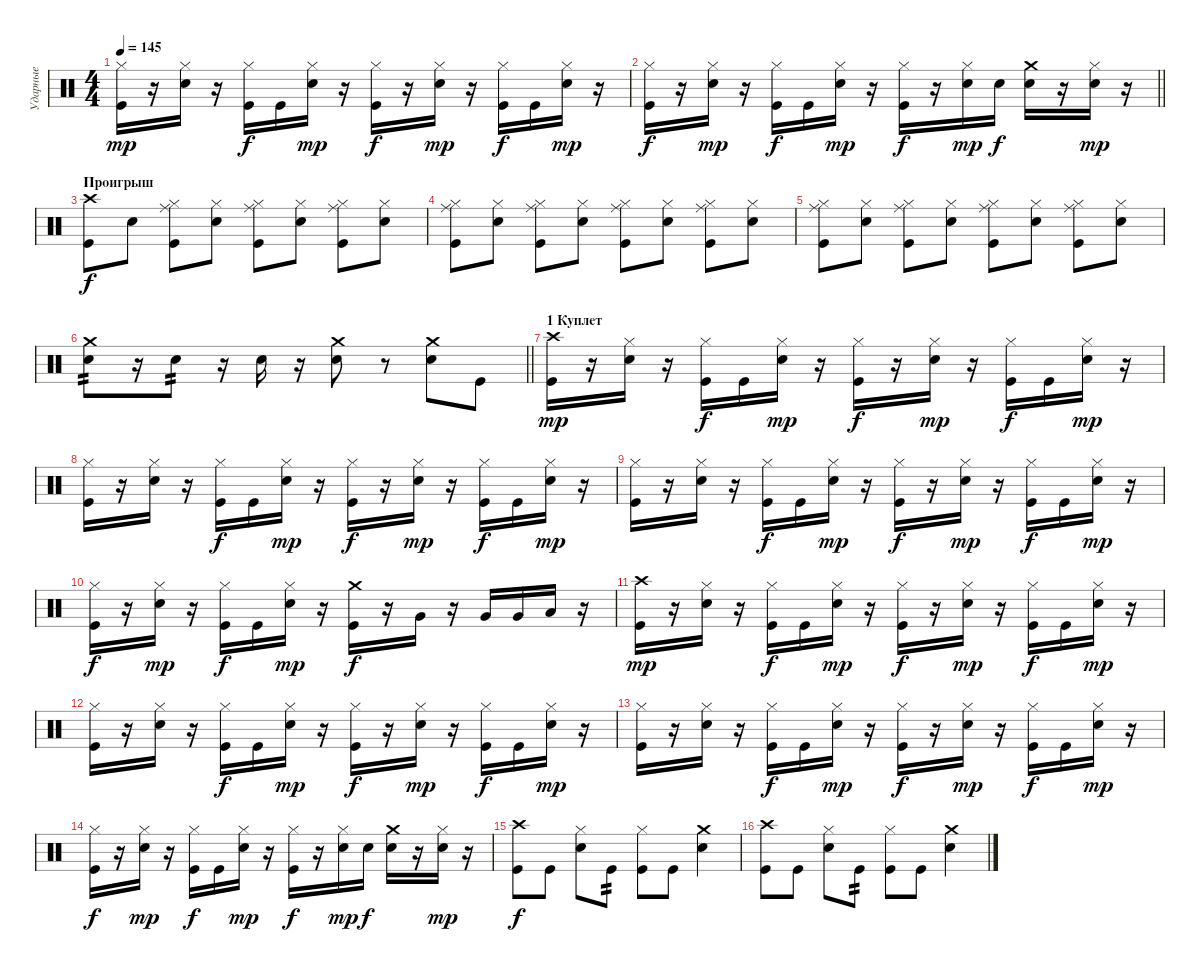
\track ("Ударные" "Ударные") {instrument percussion}
\staff {score}
\articulation defaults
\ts (4 4)
\tempo 145
\clef neutral
\ks c
("Hi-Hat (closed)" "Kick (hit)").16{dy mp} r.16 ("Hi-Hat (closed)" "Snare (hit) 2").16 r.16 ("Hi-Hat (closed)" "Kick (hit)").16{dy f} "Kick (hit)".16 ("Hi-Hat (closed)" "Snare (hit) 2").16{dy mp} r.16 ("Hi-Hat (closed)" "Kick (hit)").16{dy f} r.16 ("Hi-Hat (closed)" "Snare (hit) 2").16{dy mp} r.16 ("Hi-Hat (closed)" "Kick (hit)").16{dy f} "Kick (hit)".16 ("Hi-Hat (closed)" "Snare (hit) 2").16{dy mp} r.16 |
\barLineRight lightlight
("Hi-Hat (closed)" "Kick (hit)").16{dy f} r.16 ("Hi-Hat (closed)" "Snare (hit) 2").16{dy mp} r.16 ("Hi-Hat (closed)" "Kick (hit)").16{dy f} "Kick (hit)".16 ("Hi-Hat (closed)" "Snare (hit) 2").16{dy mp} r.16 ("Hi-Hat (closed)" "Kick (hit)").16{dy f} r.16 ("Hi-Hat (closed)" "Snare (hit) 2").16{dy mp} "Snare (hit) 2".16{dy f} ("Crash medium (hit)" "Snare (hit) 2").16 r.16 ("Hi-Hat (closed)" "Snare (hit) 2").16{dy mp} r.16 |
\section ("" "Проигрыш")
("Crash high (hit)" "Kick (hit)").8{dy f} "Snare (hit) 2".8 ("Hi-Hat (closed)" "Ride (middle)" "Kick (hit)").8 ("Hi-Hat (closed)" "Snare (hit) 2").8 ("Hi-Hat (closed)" "Ride (middle)" "Kick (hit)").8 ("Hi-Hat (closed)" "Snare (hit) 2").8 ("Hi-Hat (closed)" "Ride (middle)" "Kick (hit)").8 ("Hi-Hat (closed)" "Snare (hit) 2").8 |
("Hi-Hat (closed)" "Ride (middle)" "Kick (hit)").8 ("Hi-Hat (closed)" "Snare (hit) 2").8 ("Hi-Hat (closed)" "Ride (middle)" "Kick (hit)").8 ("Hi-Hat (closed)" "Snare (hit) 2").8 ("Hi-Hat (closed)" "Ride (middle)" "Kick (hit)").8 ("Hi-Hat (closed)" "Snare (hit) 2").8 ("Hi-Hat (closed)" "Ride (middle)" "Kick (hit)").8 ("Hi-Hat (closed)" "Snare (hit) 2").8 |
("Hi-Hat (closed)" "Ride (middle)" "Kick (hit)").8 ("Hi-Hat (closed)" "Snare (hit) 2").8 ("Hi-Hat (closed)" "Ride (middle)" "Kick (hit)").8 ("Hi-Hat (closed)" "Snare (hit) 2").8 ("Hi-Hat (closed)" "Ride (middle)" "Kick (hit)").8 ("Hi-Hat (closed)" "Snare (hit) 2").8 ("Hi-Hat (closed)" "Ride (middle)" "Kick (hit)").8 ("Hi-Hat (closed)" "Snare (hit) 2").8 |
\barLineRight lightlight
("Crash medium (hit)" "Snare (hit) 2").8{tp 2} r.16 "Snare (hit) 2".8{tp 2} r.16 "Snare (hit) 2".16 r.16 ("Crash medium (hit)" "Snare (hit) 2").8 r.8 ("Crash medium (hit)" "Snare (hit) 2").8 "Kick (hit)".8 |
\section ("" "1 Куплет")
("Crash high (hit)" "Kick (hit)").16{dy mp} r.16 ("Hi-Hat (closed)" "Snare (hit) 2").16 r.16 ("Hi-Hat (closed)" "Kick (hit)").16{dy f} "Kick (hit)".16 ("Hi-Hat (closed)" "Snare (hit) 2").16{dy mp} r.16 ("Hi-Hat (closed)" "Kick (hit)").16{dy f} r.16 ("Hi-Hat (closed)" "Snare (hit) 2").16{dy mp} r.16 ("Hi-Hat (closed)" "Kick (hit)").16{dy f} "Kick (hit)".16 ("Hi-Hat (closed)" "Snare (hit) 2").16{dy mp} r.16 |
("Hi-Hat (closed)" "Kick (hit)").16 r.16 ("Hi-Hat (closed)" "Snare (hit) 2").16 r.16 ("Hi-Hat (closed)" "Kick (hit)").16{dy f} "Kick (hit)".16 ("Hi-Hat (closed)" "Snare (hit) 2").16{dy mp} r.16 ("Hi-Hat (closed)" "Kick (hit)").16{dy f} r.16 ("Hi-Hat (closed)" "Snare (hit) 2").16{dy mp} r.16 ("Hi-Hat (closed)" "Kick (hit)").16{dy f} "Kick (hit)".16 ("Hi-Hat (closed)" "Snare (hit) 2").16{dy mp} r.16 |
("Hi-Hat (closed)" "Kick (hit)").16 r.16 ("Hi-Hat (closed)" "Snare (hit) 2").16 r.16 ("Hi-Hat (closed)" "Kick (hit)").16{dy f} "Kick (hit)".16 ("Hi-Hat (closed)" "Snare (hit) 2").16{dy mp} r.16 ("Hi-Hat (closed)" "Kick (hit)").16{dy f} r.16 ("Hi-Hat (closed)" "Snare (hit) 2").16{dy mp} r.16 ("Hi-Hat (closed)" "Kick (hit)").16{dy f} "Kick (hit)".16 ("Hi-Hat (closed)" "Snare (hit) 2").16{dy mp} r.16 |
("Hi-Hat (closed)" "Kick (hit)").16{dy f} r.16 ("Hi-Hat (closed)" "Snare (hit) 2").16{dy mp} r.16 ("Hi-Hat (closed)" "Kick (hit)").16{dy f} "Kick (hit)".16 ("Hi-Hat (closed)" "Snare (hit) 2").16{dy mp} r.16 ("Crash medium (hit)" "Kick (hit)").16{dy f} r.16 "Very Low Tom (hit)".16 r.16 "Very Low Tom (hit)".16 "Very Low Tom (hit)".16 "Low Floor Tom (hit)".16 r.16 |
("Crash high (hit)" "Kick (hit)").16{dy mp} r.16 ("Hi-Hat (closed)" "Snare (hit) 2").16 r.16 ("Hi-Hat (closed)" "Kick (hit)").16{dy f} "Kick (hit)".16 ("Hi-Hat (closed)" "Snare (hit) 2").16{dy mp} r.16 ("Hi-Hat (closed)" "Kick (hit)").16{dy f} r.16 ("Hi-Hat (closed)" "Snare (hit) 2").16{dy mp} r.16 ("Hi-Hat (closed)" "Kick (hit)").16{dy f} "Kick (hit)".16 ("Hi-Hat (closed)" "Snare (hit) 2").16{dy mp} r.16 |
("Hi-Hat (closed)" "Kick (hit)").16 r.16 ("Hi-Hat (closed)" "Snare (hit) 2").16 r.16 ("Hi-Hat (closed)" "Kick (hit)").16{dy f} "Kick (hit)".16 ("Hi-Hat (closed)" "Snare (hit) 2").16{dy mp} r.16 ("Hi-Hat (closed)" "Kick (hit)").16{dy f} r.16 ("Hi-Hat (closed)" "Snare (hit) 2").16{dy mp} r.16 ("Hi-Hat (closed)" "Kick (hit)").16{dy f} "Kick (hit)".16 ("Hi-Hat (closed)" "Snare (hit) 2").16{dy mp} r.16 |
("Hi-Hat (closed)" "Kick (hit)").16 r.16 ("Hi-Hat (closed)" "Snare (hit) 2").16 r.16 ("Hi-Hat (closed)" "Kick (hit)").16{dy f} "Kick (hit)".16 ("Hi-Hat (closed)" "Snare (hit) 2").16{dy mp} r.16 ("Hi-Hat (closed)" "Kick (hit)").16{dy f} r.16 ("Hi-Hat (closed)" "Snare (hit) 2").16{dy mp} r.16 ("Hi-Hat (closed)" "Kick (hit)").16{dy f} "Kick (hit)".16 ("Hi-Hat (closed)" "Snare (hit) 2").16{dy mp} r.16 |
("Hi-Hat (closed)" "Kick (hit)").16{dy f} r.16 ("Hi-Hat (closed)" "Snare (hit) 2").16{dy mp} r.16 ("Hi-Hat (closed)" "Kick (hit)").16{dy f} "Kick (hit)".16 ("Hi-Hat (closed)" "Snare (hit) 2").16{dy mp} r.16 ("Hi-Hat (closed)" "Kick (hit)").16{dy f} r.16 ("Hi-Hat (closed)" "Snare (hit) 2").16{dy mp} "Snare (hit) 2".16{dy f} ("Crash medium (hit)" "Snare (hit) 2").16 r.16 ("Hi-Hat (closed)" "Snare (hit) 2").16{dy mp} r.16 |
("Crash high (hit)" "Kick (hit)").8{dy f} "Kick (hit)".8 ("Hi-Hat (closed)" "Snare (hit) 2").8 "Kick (hit)".8{tp 2} ("Hi-Hat (closed)" "Kick (hit)").8 "Kick (hit)".8 ("Crash medium (hit)" "Snare (hit) 2").4 |
("Crash high (hit)" "Kick (hit)").8 "Kick (hit)".8 ("Hi-Hat (closed)" "Snare (hit) 2").8 "Kick (hit)".8{tp 2} ("Hi-Hat (closed)" "Kick (hit)").8 "Kick (hit)".8 ("Crash medium (hit)" "Snare (hit) 2").4
